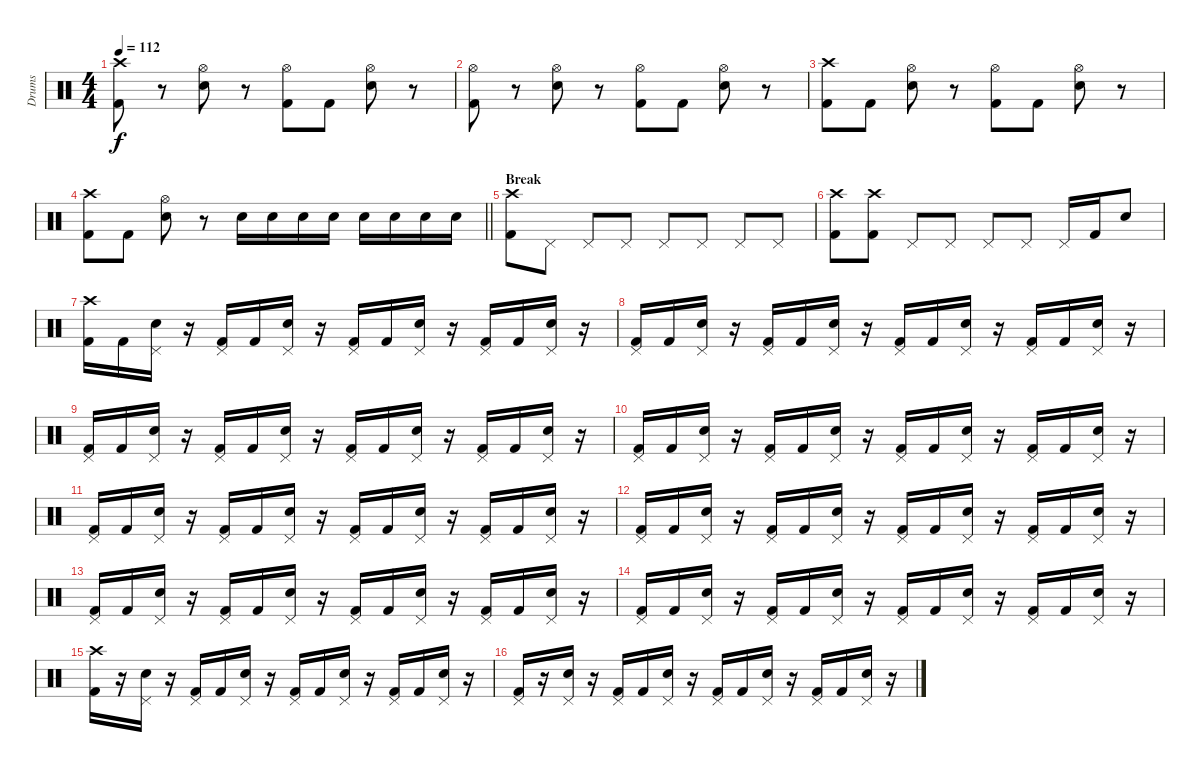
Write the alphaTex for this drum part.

\track ("Drums" "Drums") {instrument percussion}
\staff {score}
\articulation defaults
\ts (4 4)
\tempo 112
\clef neutral
\ks c
("Crash high (hit)" "Kick (hit) 2").8{dy f} r.8 ("Hi-Hat (open)" "Snare (hit) 2").8 r.8 ("Hi-Hat (open)" "Kick (hit) 2").8 "Kick (hit) 2".8 ("Hi-Hat (open)" "Snare (hit) 2").8 r.8 |
("Hi-Hat (open)" "Kick (hit) 2").8 r.8 ("Hi-Hat (open)" "Snare (hit) 2").8 r.8 ("Hi-Hat (open)" "Kick (hit) 2").8 "Kick (hit) 2".8 ("Hi-Hat (open)" "Snare (hit) 2").8 r.8 |
("Crash high (hit)" "Kick (hit) 2").8 "Kick (hit) 2".8 ("Hi-Hat (open)" "Snare (hit) 2").8 r.8 ("Hi-Hat (open)" "Kick (hit) 2").8 "Kick (hit) 2".8 ("Hi-Hat (open)" "Snare (hit) 2").8 r.8 |
\barLineRight lightlight
("Crash high (hit)" "Kick (hit) 2").8 "Kick (hit) 2".8 ("Hi-Hat (open)" "Snare (hit) 2").8 r.8 "Snare (hit) 2".16 "Snare (hit) 2".16 "Snare (hit) 2".16 "Snare (hit) 2".16 "Snare (hit) 2".16 "Snare (hit) 2".16 "Snare (hit) 2".16 "Snare (hit) 2".16 |
\section ("" "Break")
("Crash high (hit)" "Kick (hit) 2").8 "Pedal Hi-Hat (hit)".8 "Pedal Hi-Hat (hit)".8 "Pedal Hi-Hat (hit)".8 "Pedal Hi-Hat (hit)".8 "Pedal Hi-Hat (hit)".8 "Pedal Hi-Hat (hit)".8 "Pedal Hi-Hat (hit)".8 |
("Crash high (hit)" "Kick (hit) 2").8 ("Crash high (hit)" "Kick (hit) 2").8 "Pedal Hi-Hat (hit)".8 "Pedal Hi-Hat (hit)".8 "Pedal Hi-Hat (hit)".8 "Pedal Hi-Hat (hit)".8 "Pedal Hi-Hat (hit)".16 "Kick (hit) 2".16 "Snare (hit) 2".8 |
("Crash high (hit)" "Kick (hit) 2").16 "Kick (hit) 2".16 ("Pedal Hi-Hat (hit)" "Snare (hit) 2").16 r.16 ("Pedal Hi-Hat (hit)" "Kick (hit) 2").16 "Kick (hit) 2".16 ("Pedal Hi-Hat (hit)" "Snare (hit) 2").16 r.16 ("Pedal Hi-Hat (hit)" "Kick (hit) 2").16 "Kick (hit) 2".16 ("Pedal Hi-Hat (hit)" "Snare (hit) 2").16 r.16 ("Pedal Hi-Hat (hit)" "Kick (hit) 2").16 "Kick (hit) 2".16 ("Pedal Hi-Hat (hit)" "Snare (hit) 2").16 r.16 |
("Pedal Hi-Hat (hit)" "Kick (hit) 2").16 "Kick (hit) 2".16 ("Pedal Hi-Hat (hit)" "Snare (hit) 2").16 r.16 ("Pedal Hi-Hat (hit)" "Kick (hit) 2").16 "Kick (hit) 2".16 ("Pedal Hi-Hat (hit)" "Snare (hit) 2").16 r.16 ("Pedal Hi-Hat (hit)" "Kick (hit) 2").16 "Kick (hit) 2".16 ("Pedal Hi-Hat (hit)" "Snare (hit) 2").16 r.16 ("Pedal Hi-Hat (hit)" "Kick (hit) 2").16 "Kick (hit) 2".16 ("Pedal Hi-Hat (hit)" "Snare (hit) 2").16 r.16 |
("Pedal Hi-Hat (hit)" "Kick (hit) 2").16 "Kick (hit) 2".16 ("Pedal Hi-Hat (hit)" "Snare (hit) 2").16 r.16 ("Pedal Hi-Hat (hit)" "Kick (hit) 2").16 "Kick (hit) 2".16 ("Pedal Hi-Hat (hit)" "Snare (hit) 2").16 r.16 ("Pedal Hi-Hat (hit)" "Kick (hit) 2").16 "Kick (hit) 2".16 ("Pedal Hi-Hat (hit)" "Snare (hit) 2").16 r.16 ("Pedal Hi-Hat (hit)" "Kick (hit) 2").16 "Kick (hit) 2".16 ("Pedal Hi-Hat (hit)" "Snare (hit) 2").16 r.16 |
("Pedal Hi-Hat (hit)" "Kick (hit) 2").16 "Kick (hit) 2".16 ("Pedal Hi-Hat (hit)" "Snare (hit) 2").16 r.16 ("Pedal Hi-Hat (hit)" "Kick (hit) 2").16 "Kick (hit) 2".16 ("Pedal Hi-Hat (hit)" "Snare (hit) 2").16 r.16 ("Pedal Hi-Hat (hit)" "Kick (hit) 2").16 "Kick (hit) 2".16 ("Pedal Hi-Hat (hit)" "Snare (hit) 2").16 r.16 ("Pedal Hi-Hat (hit)" "Kick (hit) 2").16 "Kick (hit) 2".16 ("Pedal Hi-Hat (hit)" "Snare (hit) 2").16 r.16 |
("Pedal Hi-Hat (hit)" "Kick (hit) 2").16 "Kick (hit) 2".16 ("Pedal Hi-Hat (hit)" "Snare (hit) 2").16 r.16 ("Pedal Hi-Hat (hit)" "Kick (hit) 2").16 "Kick (hit) 2".16 ("Pedal Hi-Hat (hit)" "Snare (hit) 2").16 r.16 ("Pedal Hi-Hat (hit)" "Kick (hit) 2").16 "Kick (hit) 2".16 ("Pedal Hi-Hat (hit)" "Snare (hit) 2").16 r.16 ("Pedal Hi-Hat (hit)" "Kick (hit) 2").16 "Kick (hit) 2".16 ("Pedal Hi-Hat (hit)" "Snare (hit) 2").16 r.16 |
("Pedal Hi-Hat (hit)" "Kick (hit) 2").16 "Kick (hit) 2".16 ("Pedal Hi-Hat (hit)" "Snare (hit) 2").16 r.16 ("Pedal Hi-Hat (hit)" "Kick (hit) 2").16 "Kick (hit) 2".16 ("Pedal Hi-Hat (hit)" "Snare (hit) 2").16 r.16 ("Pedal Hi-Hat (hit)" "Kick (hit) 2").16 "Kick (hit) 2".16 ("Pedal Hi-Hat (hit)" "Snare (hit) 2").16 r.16 ("Pedal Hi-Hat (hit)" "Kick (hit) 2").16 "Kick (hit) 2".16 ("Pedal Hi-Hat (hit)" "Snare (hit) 2").16 r.16 |
("Pedal Hi-Hat (hit)" "Kick (hit) 2").16 "Kick (hit) 2".16 ("Pedal Hi-Hat (hit)" "Snare (hit) 2").16 r.16 ("Pedal Hi-Hat (hit)" "Kick (hit) 2").16 "Kick (hit) 2".16 ("Pedal Hi-Hat (hit)" "Snare (hit) 2").16 r.16 ("Pedal Hi-Hat (hit)" "Kick (hit) 2").16 "Kick (hit) 2".16 ("Pedal Hi-Hat (hit)" "Snare (hit) 2").16 r.16 ("Pedal Hi-Hat (hit)" "Kick (hit) 2").16 "Kick (hit) 2".16 ("Pedal Hi-Hat (hit)" "Snare (hit) 2").16 r.16 |
("Pedal Hi-Hat (hit)" "Kick (hit) 2").16 "Kick (hit) 2".16 ("Pedal Hi-Hat (hit)" "Snare (hit) 2").16 r.16 ("Pedal Hi-Hat (hit)" "Kick (hit) 2").16 "Kick (hit) 2".16 ("Pedal Hi-Hat (hit)" "Snare (hit) 2").16 r.16 ("Pedal Hi-Hat (hit)" "Kick (hit) 2").16 "Kick (hit) 2".16 ("Pedal Hi-Hat (hit)" "Snare (hit) 2").16 r.16 ("Pedal Hi-Hat (hit)" "Kick (hit) 2").16 "Kick (hit) 2".16 ("Pedal Hi-Hat (hit)" "Snare (hit) 2").16 r.16 |
("Crash high (hit)" "Kick (hit) 2").16 r.16 ("Pedal Hi-Hat (hit)" "Snare (hit) 2").16 r.16 ("Pedal Hi-Hat (hit)" "Kick (hit) 2").16 "Kick (hit) 2".16 ("Pedal Hi-Hat (hit)" "Snare (hit) 2").16 r.16 ("Pedal Hi-Hat (hit)" "Kick (hit) 2").16 "Kick (hit) 2".16 ("Pedal Hi-Hat (hit)" "Snare (hit) 2").16 r.16 ("Pedal Hi-Hat (hit)" "Kick (hit) 2").16 "Kick (hit) 2".16 ("Pedal Hi-Hat (hit)" "Snare (hit) 2").16 r.16 |
("Pedal Hi-Hat (hit)" "Kick (hit) 2").16 r.16 ("Pedal Hi-Hat (hit)" "Snare (hit) 2").16 r.16 ("Pedal Hi-Hat (hit)" "Kick (hit) 2").16 "Kick (hit) 2".16 ("Pedal Hi-Hat (hit)" "Snare (hit) 2").16 r.16 ("Pedal Hi-Hat (hit)" "Kick (hit) 2").16 "Kick (hit) 2".16 ("Pedal Hi-Hat (hit)" "Snare (hit) 2").16 r.16 ("Pedal Hi-Hat (hit)" "Kick (hit) 2").16 "Kick (hit) 2".16 ("Pedal Hi-Hat (hit)" "Snare (hit) 2").16 r.16
